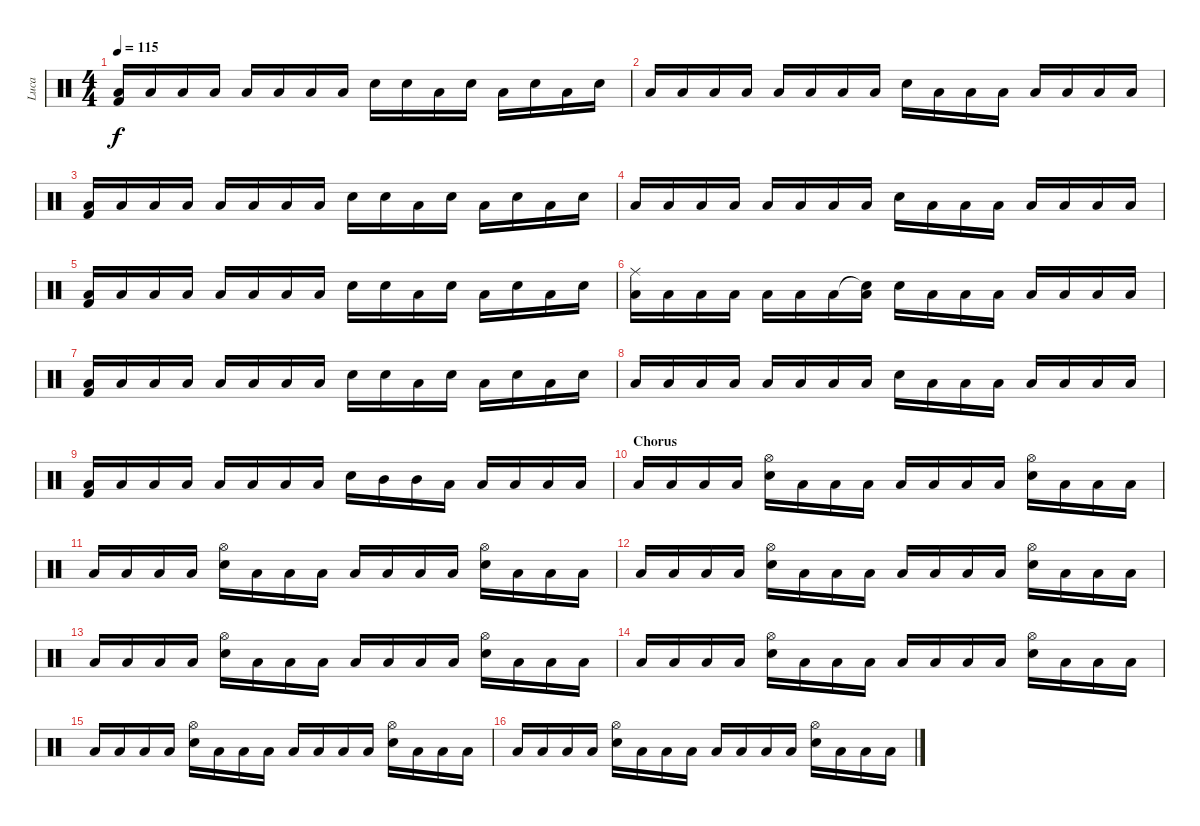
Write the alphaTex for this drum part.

\track ("Luca" "Luca") {instrument percussion}
\staff {score}
\articulation defaults
\ts (4 4)
\tempo 115
\clef neutral
\ks c
("Low Floor Tom (hit)" "Kick (hit) 2").16{dy f} "Low Floor Tom (hit)".16 "Low Floor Tom (hit)".16 "Low Floor Tom (hit)".16 "Low Floor Tom (hit)".16 "Low Floor Tom (hit)".16 "Low Floor Tom (hit)".16 "Low Floor Tom (hit)".16 "Snare (hit) 2".16 "Snare (hit) 2".16 "Low Floor Tom (hit)".16 "Snare (hit) 2".16 "Low Floor Tom (hit)".16 "Snare (hit) 2".16 "Low Floor Tom (hit)".16 "Snare (hit) 2".16 |
"Low Floor Tom (hit)".16 "Low Floor Tom (hit)".16 "Low Floor Tom (hit)".16 "Low Floor Tom (hit)".16 "Low Floor Tom (hit)".16 "Low Floor Tom (hit)".16 "Low Floor Tom (hit)".16 "Low Floor Tom (hit)".16 "Snare (hit) 2".16 "Low Floor Tom (hit)".16 "Low Floor Tom (hit)".16 "Low Floor Tom (hit)".16 "Low Floor Tom (hit)".16 "Low Floor Tom (hit)".16 "Low Floor Tom (hit)".16 "Low Floor Tom (hit)".16 |
("Low Floor Tom (hit)" "Kick (hit) 2").16 "Low Floor Tom (hit)".16 "Low Floor Tom (hit)".16 "Low Floor Tom (hit)".16 "Low Floor Tom (hit)".16 "Low Floor Tom (hit)".16 "Low Floor Tom (hit)".16 "Low Floor Tom (hit)".16 "Snare (hit) 2".16 "Snare (hit) 2".16 "Low Floor Tom (hit)".16 "Snare (hit) 2".16 "Low Floor Tom (hit)".16 "Snare (hit) 2".16 "Low Floor Tom (hit)".16 "Snare (hit) 2".16 |
"Low Floor Tom (hit)".16 "Low Floor Tom (hit)".16 "Low Floor Tom (hit)".16 "Low Floor Tom (hit)".16 "Low Floor Tom (hit)".16 "Low Floor Tom (hit)".16 "Low Floor Tom (hit)".16 "Low Floor Tom (hit)".16 "Snare (hit) 2".16 "Low Floor Tom (hit)".16 "Low Floor Tom (hit)".16 "Low Floor Tom (hit)".16 "Low Floor Tom (hit)".16 "Low Floor Tom (hit)".16 "Low Floor Tom (hit)".16 "Low Floor Tom (hit)".16 |
("Low Floor Tom (hit)" "Kick (hit) 2").16 "Low Floor Tom (hit)".16 "Low Floor Tom (hit)".16 "Low Floor Tom (hit)".16 "Low Floor Tom (hit)".16 "Low Floor Tom (hit)".16 "Low Floor Tom (hit)".16 "Low Floor Tom (hit)".16 "Snare (hit) 2".16 "Snare (hit) 2".16 "Low Floor Tom (hit)".16 "Snare (hit) 2".16 "Low Floor Tom (hit)".16 "Snare (hit) 2".16 "Low Floor Tom (hit)".16 "Snare (hit) 2".16 |
("Ride (middle)" "Low Floor Tom (hit)").16 "Low Floor Tom (hit)".16 "Low Floor Tom (hit)".16 "Low Floor Tom (hit)".16 "Low Floor Tom (hit)".16 "Low Floor Tom (hit)".16 "Low Floor Tom (hit)".16 ("Snare (hit)"{t} "Low Floor Tom (hit)").16 "Snare (hit) 2".16 "Low Floor Tom (hit)".16 "Low Floor Tom (hit)".16 "Low Floor Tom (hit)".16 "Low Floor Tom (hit)".16 "Low Floor Tom (hit)".16 "Low Floor Tom (hit)".16 "Low Floor Tom (hit)".16 |
("Low Floor Tom (hit)" "Kick (hit) 2").16 "Low Floor Tom (hit)".16 "Low Floor Tom (hit)".16 "Low Floor Tom (hit)".16 "Low Floor Tom (hit)".16 "Low Floor Tom (hit)".16 "Low Floor Tom (hit)".16 "Low Floor Tom (hit)".16 "Snare (hit) 2".16 "Snare (hit) 2".16 "Low Floor Tom (hit)".16 "Snare (hit) 2".16 "Low Floor Tom (hit)".16 "Snare (hit) 2".16 "Low Floor Tom (hit)".16 "Snare (hit) 2".16 |
"Low Floor Tom (hit)".16 "Low Floor Tom (hit)".16 "Low Floor Tom (hit)".16 "Low Floor Tom (hit)".16 "Low Floor Tom (hit)".16 "Low Floor Tom (hit)".16 "Low Floor Tom (hit)".16 "Low Floor Tom (hit)".16 "Snare (hit) 2".16 "Low Floor Tom (hit)".16 "Low Floor Tom (hit)".16 "Low Floor Tom (hit)".16 "Low Floor Tom (hit)".16 "Low Floor Tom (hit)".16 "Low Floor Tom (hit)".16 "Low Floor Tom (hit)".16 |
("Low Floor Tom (hit)" "Kick (hit) 2").16 "Low Floor Tom (hit)".16 "Low Floor Tom (hit)".16 "Low Floor Tom (hit)".16 "Low Floor Tom (hit)".16 "Low Floor Tom (hit)".16 "Low Floor Tom (hit)".16 "Low Floor Tom (hit)".16 "Snare (hit) 2".16 "Mid Tom (hit)".16 "Mid Tom (hit)".16 "Low Tom (hit)".16 "Low Tom (hit)".16 "Low Tom (hit)".16 "Low Floor Tom (hit)".16 "Low Floor Tom (hit)".16 |
\section ("" "Chorus")
"Low Floor Tom (hit)".16 "Low Floor Tom (hit)".16 "Low Floor Tom (hit)".16 "Low Floor Tom (hit)".16 ("Hi-Hat (open)" "Snare (hit) 2").16 "Low Floor Tom (hit)".16 "Low Floor Tom (hit)".16 "Low Floor Tom (hit)".16 "Low Floor Tom (hit)".16 "Low Floor Tom (hit)".16 "Low Floor Tom (hit)".16 "Low Floor Tom (hit)".16 ("Hi-Hat (open)" "Snare (hit) 2").16 "Low Floor Tom (hit)".16 "Low Floor Tom (hit)".16 "Low Floor Tom (hit)".16 |
"Low Floor Tom (hit)".16 "Low Floor Tom (hit)".16 "Low Floor Tom (hit)".16 "Low Floor Tom (hit)".16 ("Hi-Hat (open)" "Snare (hit) 2").16 "Low Floor Tom (hit)".16 "Low Floor Tom (hit)".16 "Low Floor Tom (hit)".16 "Low Floor Tom (hit)".16 "Low Floor Tom (hit)".16 "Low Floor Tom (hit)".16 "Low Floor Tom (hit)".16 ("Hi-Hat (open)" "Snare (hit) 2").16 "Low Floor Tom (hit)".16 "Low Floor Tom (hit)".16 "Low Floor Tom (hit)".16 |
"Low Floor Tom (hit)".16 "Low Floor Tom (hit)".16 "Low Floor Tom (hit)".16 "Low Floor Tom (hit)".16 ("Hi-Hat (open)" "Snare (hit) 2").16 "Low Floor Tom (hit)".16 "Low Floor Tom (hit)".16 "Low Floor Tom (hit)".16 "Low Floor Tom (hit)".16 "Low Floor Tom (hit)".16 "Low Floor Tom (hit)".16 "Low Floor Tom (hit)".16 ("Hi-Hat (open)" "Snare (hit) 2").16 "Low Floor Tom (hit)".16 "Low Floor Tom (hit)".16 "Low Floor Tom (hit)".16 |
"Low Floor Tom (hit)".16 "Low Floor Tom (hit)".16 "Low Floor Tom (hit)".16 "Low Floor Tom (hit)".16 ("Hi-Hat (open)" "Snare (hit) 2").16 "Low Floor Tom (hit)".16 "Low Floor Tom (hit)".16 "Low Floor Tom (hit)".16 "Low Floor Tom (hit)".16 "Low Floor Tom (hit)".16 "Low Floor Tom (hit)".16 "Low Floor Tom (hit)".16 ("Hi-Hat (open)" "Snare (hit) 2").16 "Low Floor Tom (hit)".16 "Low Floor Tom (hit)".16 "Low Floor Tom (hit)".16 |
"Low Floor Tom (hit)".16 "Low Floor Tom (hit)".16 "Low Floor Tom (hit)".16 "Low Floor Tom (hit)".16 ("Hi-Hat (open)" "Snare (hit) 2").16 "Low Floor Tom (hit)".16 "Low Floor Tom (hit)".16 "Low Floor Tom (hit)".16 "Low Floor Tom (hit)".16 "Low Floor Tom (hit)".16 "Low Floor Tom (hit)".16 "Low Floor Tom (hit)".16 ("Hi-Hat (open)" "Snare (hit) 2").16 "Low Floor Tom (hit)".16 "Low Floor Tom (hit)".16 "Low Floor Tom (hit)".16 |
"Low Floor Tom (hit)".16 "Low Floor Tom (hit)".16 "Low Floor Tom (hit)".16 "Low Floor Tom (hit)".16 ("Hi-Hat (open)" "Snare (hit) 2").16 "Low Floor Tom (hit)".16 "Low Floor Tom (hit)".16 "Low Floor Tom (hit)".16 "Low Floor Tom (hit)".16 "Low Floor Tom (hit)".16 "Low Floor Tom (hit)".16 "Low Floor Tom (hit)".16 ("Hi-Hat (open)" "Snare (hit) 2").16 "Low Floor Tom (hit)".16 "Low Floor Tom (hit)".16 "Low Floor Tom (hit)".16 |
"Low Floor Tom (hit)".16 "Low Floor Tom (hit)".16 "Low Floor Tom (hit)".16 "Low Floor Tom (hit)".16 ("Hi-Hat (open)" "Snare (hit) 2").16 "Low Floor Tom (hit)".16 "Low Floor Tom (hit)".16 "Low Floor Tom (hit)".16 "Low Floor Tom (hit)".16 "Low Floor Tom (hit)".16 "Low Floor Tom (hit)".16 "Low Floor Tom (hit)".16 ("Hi-Hat (open)" "Snare (hit) 2").16 "Low Floor Tom (hit)".16 "Low Floor Tom (hit)".16 "Low Floor Tom (hit)".16
